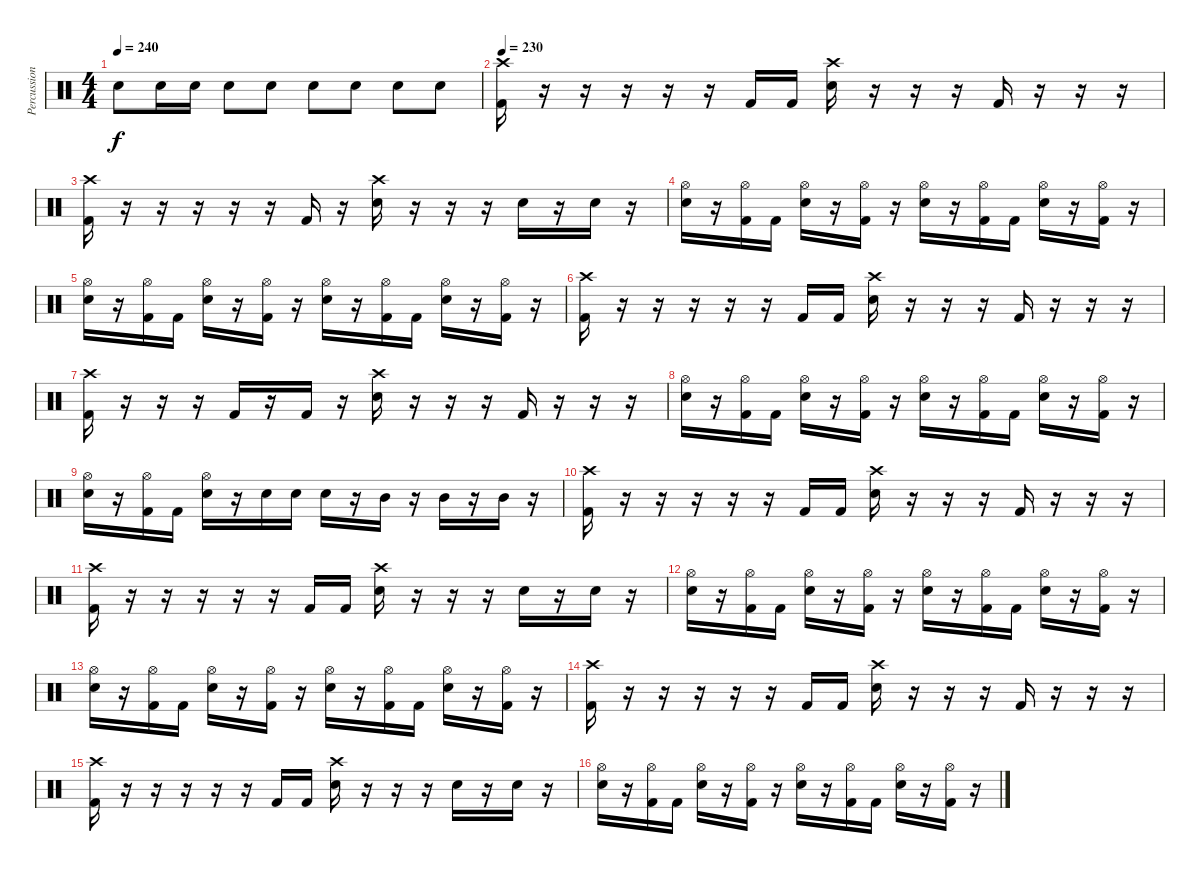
\track ("Percussion" "Percussion") {instrument percussion}
\staff {score}
\articulation defaults
\ts (4 4)
\tempo 240
\clef neutral
\ks c "Electric Snare (hit)".8{dy f} "Electric Snare (hit)".16 "Electric Snare (hit)".16 "Electric Snare (hit)".8 "Electric Snare (hit)".8 "Electric Snare (hit)".8 "Electric Snare (hit)".8 "Electric Snare (hit)".8 "Electric Snare (hit)".8
|
\tempo 230
("Crash high (hit)" "Kick (hit) 2").16 r.16 r.16 r.16 r.16 r.16 "Kick (hit) 2".16 "Kick (hit) 2".16 ("Crash high (hit)" "Electric Snare (hit)").16 r.16 r.16 r.16 "Kick (hit) 2".16 r.16 r.16 r.16 |
("Crash high (hit)" "Kick (hit) 2").16 r.16 r.16 r.16 r.16 r.16 "Kick (hit) 2".16 r.16 ("Crash high (hit)" "Electric Snare (hit)").16 r.16 r.16 r.16 "Electric Snare (hit)".16 r.16 "Electric Snare (hit)".16 r.16 |
("Hi-Hat (open)" "Electric Snare (hit)").16 r.16 ("Hi-Hat (open)" "Kick (hit) 2").16 "Kick (hit) 2".16 ("Hi-Hat (open)" "Electric Snare (hit)").16 r.16 ("Hi-Hat (open)" "Kick (hit) 2").16 r.16 ("Hi-Hat (open)" "Electric Snare (hit)").16 r.16 ("Hi-Hat (open)" "Kick (hit) 2").16 "Kick (hit) 2".16 ("Hi-Hat (open)" "Electric Snare (hit)").16 r.16 ("Hi-Hat (open)" "Kick (hit) 2").16 r.16 |
("Hi-Hat (open)" "Electric Snare (hit)").16 r.16 ("Hi-Hat (open)" "Kick (hit) 2").16 "Kick (hit) 2".16 ("Hi-Hat (open)" "Electric Snare (hit)").16 r.16 ("Hi-Hat (open)" "Kick (hit) 2").16 r.16 ("Hi-Hat (open)" "Electric Snare (hit)").16 r.16 ("Hi-Hat (open)" "Kick (hit) 2").16 "Kick (hit) 2".16 ("Hi-Hat (open)" "Electric Snare (hit)").16 r.16 ("Hi-Hat (open)" "Kick (hit) 2").16 r.16 |
("Crash high (hit)" "Kick (hit) 2").16 r.16 r.16 r.16 r.16 r.16 "Kick (hit) 2".16 "Kick (hit) 2".16 ("Crash high (hit)" "Electric Snare (hit)").16 r.16 r.16 r.16 "Kick (hit) 2".16 r.16 r.16 r.16 |
("Crash high (hit)" "Kick (hit) 2").16 r.16 r.16 r.16 "Kick (hit) 2".16 r.16 "Kick (hit) 2".16 r.16 ("Crash high (hit)" "Electric Snare (hit)").16 r.16 r.16 r.16 "Kick (hit) 2".16 r.16 r.16 r.16 |
("Hi-Hat (open)" "Electric Snare (hit)").16 r.16 ("Hi-Hat (open)" "Kick (hit) 2").16 "Kick (hit) 2".16 ("Hi-Hat (open)" "Electric Snare (hit)").16 r.16 ("Hi-Hat (open)" "Kick (hit) 2").16 r.16 ("Hi-Hat (open)" "Electric Snare (hit)").16 r.16 ("Hi-Hat (open)" "Kick (hit) 2").16 "Kick (hit) 2".16 ("Hi-Hat (open)" "Electric Snare (hit)").16 r.16 ("Hi-Hat (open)" "Kick (hit) 2").16 r.16 |
("Hi-Hat (open)" "Electric Snare (hit)").16 r.16 ("Hi-Hat (open)" "Kick (hit) 2").16 "Kick (hit) 2".16 ("Hi-Hat (open)" "Electric Snare (hit)").16 r.16 "Electric Snare (hit)".16 "Electric Snare (hit)".16 "Electric Snare (hit)".16 r.16 "Mid Tom (hit)".16 r.16 "Mid Tom (hit)".16 r.16 "Mid Tom (hit)".16 r.16 |
("Crash high (hit)" "Kick (hit) 2").16 r.16 r.16 r.16 r.16 r.16 "Kick (hit) 2".16 "Kick (hit) 2".16 ("Crash high (hit)" "Electric Snare (hit)").16 r.16 r.16 r.16 "Kick (hit) 2".16 r.16 r.16 r.16 |
("Crash high (hit)" "Kick (hit) 2").16 r.16 r.16 r.16 r.16 r.16 "Kick (hit) 2".16 "Kick (hit) 2".16 ("Crash high (hit)" "Electric Snare (hit)").16 r.16 r.16 r.16 "Electric Snare (hit)".16 r.16 "Electric Snare (hit)".16 r.16 |
("Hi-Hat (open)" "Electric Snare (hit)").16 r.16 ("Hi-Hat (open)" "Kick (hit) 2").16 "Kick (hit) 2".16 ("Hi-Hat (open)" "Electric Snare (hit)").16 r.16 ("Hi-Hat (open)" "Kick (hit) 2").16 r.16 ("Hi-Hat (open)" "Electric Snare (hit)").16 r.16 ("Hi-Hat (open)" "Kick (hit) 2").16 "Kick (hit) 2".16 ("Hi-Hat (open)" "Electric Snare (hit)").16 r.16 ("Hi-Hat (open)" "Kick (hit) 2").16 r.16 |
("Hi-Hat (open)" "Electric Snare (hit)").16 r.16 ("Hi-Hat (open)" "Kick (hit) 2").16 "Kick (hit) 2".16 ("Hi-Hat (open)" "Electric Snare (hit)").16 r.16 ("Hi-Hat (open)" "Kick (hit) 2").16 r.16 ("Hi-Hat (open)" "Electric Snare (hit)").16 r.16 ("Hi-Hat (open)" "Kick (hit) 2").16 "Kick (hit) 2".16 ("Hi-Hat (open)" "Electric Snare (hit)").16 r.16 ("Hi-Hat (open)" "Kick (hit) 2").16 r.16 |
("Crash high (hit)" "Kick (hit) 2").16 r.16 r.16 r.16 r.16 r.16 "Kick (hit) 2".16 "Kick (hit) 2".16 ("Crash high (hit)" "Electric Snare (hit)").16 r.16 r.16 r.16 "Kick (hit) 2".16 r.16 r.16 r.16 |
("Crash high (hit)" "Kick (hit) 2").16 r.16 r.16 r.16 r.16 r.16 "Kick (hit) 2".16 "Kick (hit) 2".16 ("Crash high (hit)" "Electric Snare (hit)").16 r.16 r.16 r.16 "Electric Snare (hit)".16 r.16 "Electric Snare (hit)".16 r.16 |
("Hi-Hat (open)" "Electric Snare (hit)").16 r.16 ("Hi-Hat (open)" "Kick (hit) 2").16 "Kick (hit) 2".16 ("Hi-Hat (open)" "Electric Snare (hit)").16 r.16 ("Hi-Hat (open)" "Kick (hit) 2").16 r.16 ("Hi-Hat (open)" "Electric Snare (hit)").16 r.16 ("Hi-Hat (open)" "Kick (hit) 2").16 "Kick (hit) 2".16 ("Hi-Hat (open)" "Electric Snare (hit)").16 r.16 ("Hi-Hat (open)" "Kick (hit) 2").16 r.16
